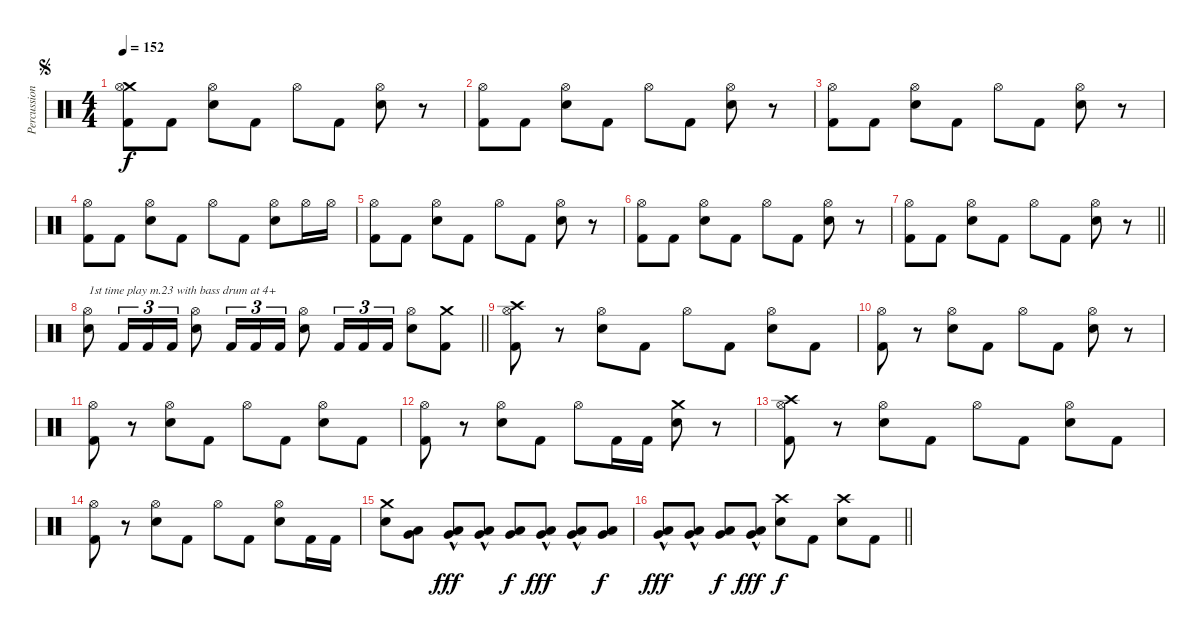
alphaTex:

\track ("Percussion" "Percussion") {instrument percussion}
\staff {score}
\articulation defaults
\ts (4 4)
\jump segno
\tempo 152
\clef neutral
\ks c
("Crash medium (hit)" "Hi-Hat (open)" "Kick (hit) 2").8{dy f} "Kick (hit) 2".8 ("Hi-Hat (open)" "Snare (hit) 2").8 "Kick (hit) 2".8 "Hi-Hat (open)".8 "Kick (hit) 2".8 ("Hi-Hat (open)" "Snare (hit) 2").8 r.8 |
("Hi-Hat (open)" "Kick (hit) 2").8 "Kick (hit) 2".8 ("Hi-Hat (open)" "Snare (hit) 2").8 "Kick (hit) 2".8 "Hi-Hat (open)".8 "Kick (hit) 2".8 ("Hi-Hat (open)" "Snare (hit) 2").8 r.8 |
("Hi-Hat (open)" "Kick (hit) 2").8 "Kick (hit) 2".8 ("Hi-Hat (open)" "Snare (hit) 2").8 "Kick (hit) 2".8 "Hi-Hat (open)".8 "Kick (hit) 2".8 ("Hi-Hat (open)" "Snare (hit) 2").8 r.8 |
("Hi-Hat (open)" "Kick (hit) 2").8 "Kick (hit) 2".8 ("Hi-Hat (open)" "Snare (hit) 2").8 "Kick (hit) 2".8 "Hi-Hat (open)".8 "Kick (hit) 2".8 ("Hi-Hat (open)" "Snare (hit) 2").8 "Hi-Hat (open)".16 "Hi-Hat (open)".16 |
("Hi-Hat (open)" "Kick (hit) 2").8 "Kick (hit) 2".8 ("Hi-Hat (open)" "Snare (hit) 2").8 "Kick (hit) 2".8 "Hi-Hat (open)".8 "Kick (hit) 2".8 ("Hi-Hat (open)" "Snare (hit) 2").8 r.8 |
("Hi-Hat (open)" "Kick (hit) 2").8 "Kick (hit) 2".8 ("Hi-Hat (open)" "Snare (hit) 2").8 "Kick (hit) 2".8 "Hi-Hat (open)".8 "Kick (hit) 2".8 ("Hi-Hat (open)" "Snare (hit) 2").8 r.8 |
\barLineRight lightlight
("Hi-Hat (open)" "Kick (hit) 2").8 "Kick (hit) 2".8 ("Hi-Hat (open)" "Snare (hit) 2").8 "Kick (hit) 2".8 "Hi-Hat (open)".8 "Kick (hit) 2".8 ("Hi-Hat (open)" "Snare (hit) 2").8 r.8 |
\barLineRight lightlight
("Hi-Hat (open)" "Snare (hit) 2").8{txt "1st time play m.23 with bass drum at 4+"} "Kick (hit) 2".16{tu (3 2)} "Kick (hit) 2".16{tu (3 2)} "Kick (hit) 2".16{tu (3 2)} ("Hi-Hat (open)" "Snare (hit) 2").8 "Kick (hit) 2".16{tu (3 2)} "Kick (hit) 2".16{tu (3 2)} "Kick (hit) 2".16{tu (3 2)} ("Hi-Hat (open)" "Snare (hit) 2").8 "Kick (hit) 2".16{tu (3 2)} "Kick (hit) 2".16{tu (3 2)} "Kick (hit) 2".16{tu (3 2)} ("Hi-Hat (open)" "Snare (hit) 2").8 ("Crash medium (hit)" "Kick (hit) 2").8 |
("Crash high (hit)" "Hi-Hat (open)" "Kick (hit) 2").8 r.8 ("Hi-Hat (open)" "Snare (hit) 2").8 "Kick (hit) 2".8 "Hi-Hat (open)".8 "Kick (hit) 2".8 ("Hi-Hat (open)" "Snare (hit) 2").8 "Kick (hit) 2".8 |
("Hi-Hat (open)" "Kick (hit) 2").8 r.8 ("Hi-Hat (open)" "Snare (hit) 2").8 "Kick (hit) 2".8 "Hi-Hat (open)".8 "Kick (hit) 2".8 ("Hi-Hat (open)" "Snare (hit) 2").8 r.8 |
("Hi-Hat (open)" "Kick (hit) 2").8 r.8 ("Hi-Hat (open)" "Snare (hit) 2").8 "Kick (hit) 2".8 "Hi-Hat (open)".8 "Kick (hit) 2".8 ("Hi-Hat (open)" "Snare (hit) 2").8 "Kick (hit) 2".8 |
("Hi-Hat (open)" "Kick (hit) 2").8 r.8 ("Hi-Hat (open)" "Snare (hit) 2").8 "Kick (hit) 2".8 "Hi-Hat (open)".8 "Kick (hit) 2".16 "Kick (hit) 2".16 ("Crash medium (hit)" "Snare (hit) 2").8 r.8 |
("Crash high (hit)" "Hi-Hat (open)" "Kick (hit) 2").8 r.8 ("Hi-Hat (open)" "Snare (hit) 2").8 "Kick (hit) 2".8 "Hi-Hat (open)".8 "Kick (hit) 2".8 ("Hi-Hat (open)" "Snare (hit) 2").8 "Kick (hit) 2".8 |
("Hi-Hat (open)" "Kick (hit) 2").8 r.8 ("Hi-Hat (open)" "Snare (hit) 2").8 "Kick (hit) 2".8 "Hi-Hat (open)".8 "Kick (hit) 2".8 ("Hi-Hat (open)" "Snare (hit) 2").8 "Kick (hit) 2".16 "Kick (hit) 2".16 |
("Crash medium (hit)" "Snare (hit) 2").8 ("Low Tom (hit)" "Very Low Tom (hit)").8 ("Low Tom (hit)"{hac} "Very Low Tom (hit)"{hac}).8{dy fff} ("Low Tom (hit)"{hac} "Very Low Tom (hit)"{hac}).8 ("Low Tom (hit)" "Very Low Tom (hit)").8{dy f} ("Low Tom (hit)"{hac} "Very Low Tom (hit)"{hac}).8{dy fff} ("Low Tom (hit)"{hac} "Very Low Tom (hit)"{hac}).8 ("Low Tom (hit)" "Very Low Tom (hit)").8{dy f} |
\barLineRight lightlight
("Low Tom (hit)"{hac} "Very Low Tom (hit)"{hac}).8{dy fff} ("Low Tom (hit)"{hac} "Very Low Tom (hit)"{hac}).8 ("Low Tom (hit)" "Very Low Tom (hit)").8{dy f} ("Low Tom (hit)"{hac} "Very Low Tom (hit)"{hac}).8{dy fff} ("Crash high (hit)" "Snare (hit) 2").8{dy f} "Kick (hit) 2".8 ("Crash high (hit)" "Snare (hit) 2").8 "Kick (hit) 2".8
